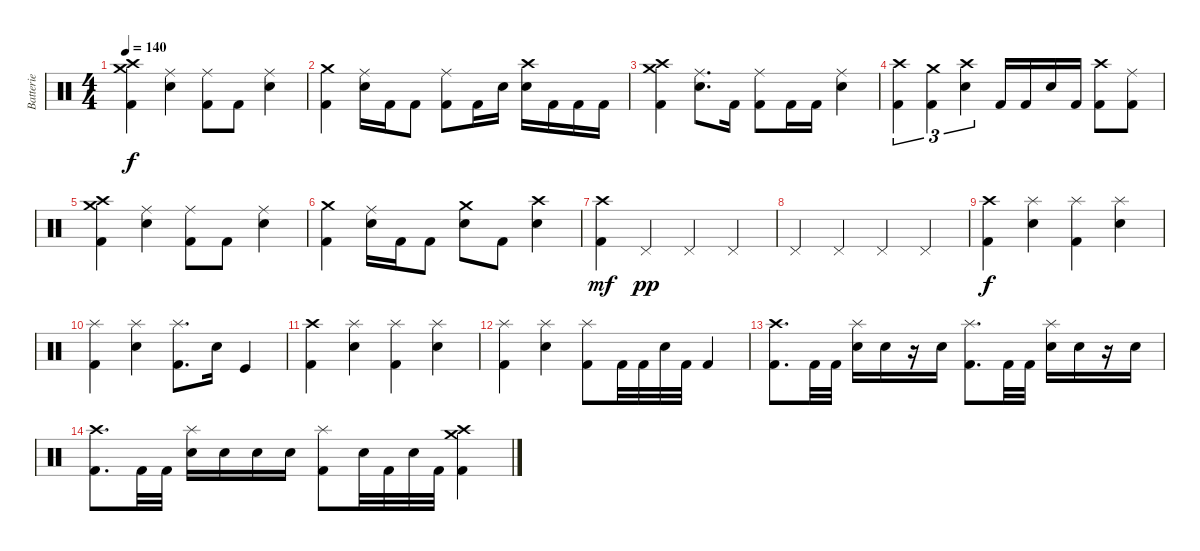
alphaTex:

\track ("Batterie" "Batterie") {instrument percussion}
\staff {score}
\articulation defaults
\ts (4 4)
\tempo 140
\clef neutral
\ks c
("Crash high (hit)" "Crash medium (hit)" "Kick (hit) 2").4{dy f} ("Ride (middle)" "Electric Snare (hit)").4 ("Ride (middle)" "Kick (hit) 2").8 "Kick (hit) 2".8 ("Ride (middle)" "Electric Snare (hit)").4 |
("Crash medium (hit)" "Kick (hit) 2").4 ("Ride (middle)" "Electric Snare (hit)").16 "Kick (hit) 2".16 "Kick (hit) 2".8 ("Ride (middle)" "Kick (hit) 2").8 "Kick (hit) 2".16 "Electric Snare (hit)".16 ("Crash high (hit)" "Electric Snare (hit)").16 "Kick (hit) 2".16 "Kick (hit) 2".16 "Kick (hit) 2".16 |
("Crash high (hit)" "Crash medium (hit)" "Kick (hit) 2").4 ("Ride (middle)" "Electric Snare (hit)").8{d} "Kick (hit) 2".16 ("Ride (middle)" "Kick (hit) 2").8 "Kick (hit) 2".16 "Kick (hit) 2".16 ("Ride (middle)" "Electric Snare (hit)").4 |
("Crash high (hit)" "Kick (hit) 2").4{tu (3 2)} ("Crash medium (hit)" "Kick (hit) 2").4{tu (3 2)} ("Crash high (hit)" "Electric Snare (hit)").4{tu (3 2)} "Kick (hit) 2".16 "Kick (hit) 2".16 "Electric Snare (hit)".16 "Kick (hit) 2".16 ("Crash high (hit)" "Kick (hit) 2").8 ("Ride (middle)" "Kick (hit) 2").8 |
("Crash high (hit)" "Crash medium (hit)" "Kick (hit) 2").4 ("Ride (middle)" "Electric Snare (hit)").4 ("Ride (middle)" "Kick (hit) 2").8 "Kick (hit) 2".8 ("Ride (middle)" "Electric Snare (hit)").4 |
("Crash medium (hit)" "Kick (hit) 2").4 ("Ride (middle)" "Electric Snare (hit)").16 "Kick (hit) 2".16 "Kick (hit) 2".8 ("Crash medium (hit)" "Electric Snare (hit)").8 "Kick (hit) 2".8 ("Crash high (hit)" "Electric Snare (hit)").4 |
("Crash high (hit)" "Kick (hit) 2").4{dy mf volume 14} "Pedal Hi-Hat (hit)".4{dy pp} "Pedal Hi-Hat (hit)".4 "Pedal Hi-Hat (hit)".4 |
"Pedal Hi-Hat (hit)".4 "Pedal Hi-Hat (hit)".4 "Pedal Hi-Hat (hit)".4 "Pedal Hi-Hat (hit)".4 |
("Crash high (hit)" "Kick (hit) 2").4{dy f} ("Splash (hit)" "Electric Snare (hit)").4 ("Splash (hit)" "Kick (hit) 2").4 ("Splash (hit)" "Electric Snare (hit)").4 |
("Splash (hit)" "Kick (hit) 2").4 ("Splash (hit)" "Electric Snare (hit)").4 ("Splash (hit)" "Kick (hit) 2").8{d} "Electric Snare (hit)".16 "Kick (hit)".4 |
("Crash high (hit)" "Kick (hit) 2").4 ("Splash (hit)" "Electric Snare (hit)").4 ("Splash (hit)" "Kick (hit) 2").4 ("Splash (hit)" "Electric Snare (hit)").4 |
("Splash (hit)" "Kick (hit) 2").4 ("Splash (hit)" "Electric Snare (hit)").4 ("Splash (hit)" "Kick (hit) 2").8 "Kick (hit) 2".32 "Kick (hit) 2".32 "Electric Snare (hit)".32 "Kick (hit) 2".32 "Kick (hit) 2".4 |
("Crash high (hit)" "Kick (hit) 2").8{d} "Kick (hit) 2".32 "Kick (hit) 2".32 ("Splash (hit)" "Electric Snare (hit)").16 "Electric Snare (hit)".16 r.16 "Electric Snare (hit)".16 ("Splash (hit)" "Kick (hit) 2").8{d} "Kick (hit) 2".32 "Kick (hit) 2".32 ("Splash (hit)" "Electric Snare (hit)").16 "Electric Snare (hit)".16 r.16 "Electric Snare (hit)".16 |
("Crash high (hit)" "Kick (hit) 2").8{d} "Kick (hit) 2".32 "Kick (hit) 2".32 ("Splash (hit)" "Electric Snare (hit)").16 "Electric Snare (hit)".16 "Electric Snare (hit)".16 "Electric Snare (hit)".16 ("Splash (hit)" "Kick (hit) 2").8 "Electric Snare (hit)".32 "Kick (hit) 2".32 "Electric Snare (hit)".32 "Kick (hit) 2".32 ("Crash high (hit)" "Crash medium (hit)" "Kick (hit) 2").4
